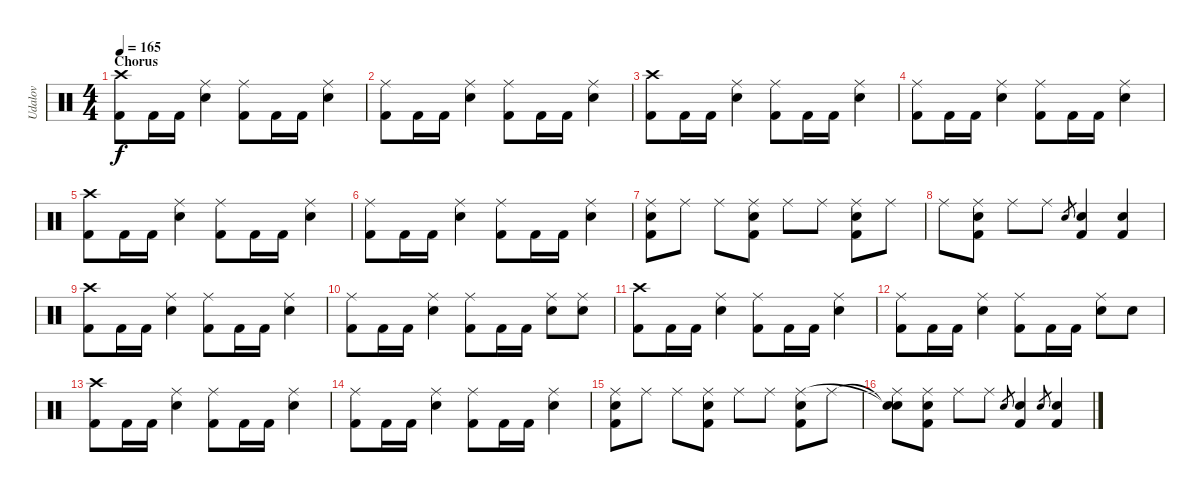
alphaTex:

\track ("Udalov" "Udalov") {instrument percussion}
\staff {score}
\articulation defaults
\ts (4 4)
\section ("" "Chorus")
\tempo 165
\clef neutral
\ks c
("Kick (hit) 2" "Crash high (hit)").8{dy f} "Kick (hit) 2".16 "Kick (hit) 2".16 ("Snare (hit) 2" "Ride (middle)").4 ("Kick (hit) 2" "Ride (middle)").8 "Kick (hit) 2".16 "Kick (hit) 2".16 ("Snare (hit) 2" "Ride (middle)").4 |
("Kick (hit) 2" "Ride (middle)").8 "Kick (hit) 2".16 "Kick (hit) 2".16 ("Snare (hit) 2" "Ride (middle)").4 ("Kick (hit) 2" "Ride (middle)").8 "Kick (hit) 2".16 "Kick (hit) 2".16 ("Snare (hit) 2" "Ride (middle)").4 |
("Kick (hit) 2" "Crash high (hit)").8 "Kick (hit) 2".16 "Kick (hit) 2".16 ("Snare (hit) 2" "Ride (middle)").4 ("Kick (hit) 2" "Ride (middle)").8 "Kick (hit) 2".16 "Kick (hit) 2".16 ("Snare (hit) 2" "Ride (middle)").4 |
("Kick (hit) 2" "Ride (middle)").8 "Kick (hit) 2".16 "Kick (hit) 2".16 ("Snare (hit) 2" "Ride (middle)").4 ("Kick (hit) 2" "Ride (middle)").8 "Kick (hit) 2".16 "Kick (hit) 2".16 ("Snare (hit) 2" "Ride (middle)").4 |
("Kick (hit) 2" "Crash high (hit)").8 "Kick (hit) 2".16 "Kick (hit) 2".16 ("Snare (hit) 2" "Ride (middle)").4 ("Kick (hit) 2" "Ride (middle)").8 "Kick (hit) 2".16 "Kick (hit) 2".16 ("Snare (hit) 2" "Ride (middle)").4 |
("Kick (hit) 2" "Ride (middle)").8 "Kick (hit) 2".16 "Kick (hit) 2".16 ("Snare (hit) 2" "Ride (middle)").4 ("Kick (hit) 2" "Ride (middle)").8 "Kick (hit) 2".16 "Kick (hit) 2".16 ("Snare (hit) 2" "Ride (middle)").4 |
("Snare (hit) 2" "Ride (middle)" "Kick (hit) 2").8 "Ride (middle)".8 "Ride (middle)".8 ("Snare (hit) 2" "Ride (middle)" "Kick (hit) 2").8 "Ride (middle)".8 "Ride (middle)".8 ("Snare (hit) 2" "Ride (middle)" "Kick (hit) 2").8 "Ride (middle)".8 |
"Ride (middle)".8 ("Snare (hit) 2" "Ride (middle)" "Kick (hit) 2").8 "Ride (middle)".8 "Ride (middle)".8 "Snare (hit) 2".8{gr} ("Snare (hit) 2" "Kick (hit) 2").4 ("Snare (hit) 2" "Kick (hit) 2").4 |
("Kick (hit) 2" "Crash high (hit)").8 "Kick (hit) 2".16 "Kick (hit) 2".16 ("Snare (hit) 2" "Ride (middle)").4 ("Kick (hit) 2" "Ride (middle)").8 "Kick (hit) 2".16 "Kick (hit) 2".16 ("Snare (hit) 2" "Ride (middle)").4 |
("Kick (hit) 2" "Ride (middle)").8 "Kick (hit) 2".16 "Kick (hit) 2".16 ("Snare (hit) 2" "Ride (middle)").4 ("Kick (hit) 2" "Ride (middle)").8 "Kick (hit) 2".16 "Kick (hit) 2".16 ("Snare (hit) 2" "Ride (middle)").8 ("Snare (hit) 2" "Ride (middle)").8 |
("Kick (hit) 2" "Crash high (hit)").8 "Kick (hit) 2".16 "Kick (hit) 2".16 ("Snare (hit) 2" "Ride (middle)").4 ("Kick (hit) 2" "Ride (middle)").8 "Kick (hit) 2".16 "Kick (hit) 2".16 ("Snare (hit) 2" "Ride (middle)").4 |
("Kick (hit) 2" "Ride (middle)").8 "Kick (hit) 2".16 "Kick (hit) 2".16 ("Snare (hit) 2" "Ride (middle)").4 ("Kick (hit) 2" "Ride (middle)").8 "Kick (hit) 2".16 "Kick (hit) 2".16 ("Snare (hit) 2" "Ride (middle)").8 "Snare (hit) 2".8 |
("Kick (hit) 2" "Crash high (hit)").8 "Kick (hit) 2".16 "Kick (hit) 2".16 ("Snare (hit) 2" "Ride (middle)").4 ("Kick (hit) 2" "Ride (middle)").8 "Kick (hit) 2".16 "Kick (hit) 2".16 ("Snare (hit) 2" "Ride (middle)").4 |
("Kick (hit) 2" "Ride (middle)").8 "Kick (hit) 2".16 "Kick (hit) 2".16 ("Snare (hit) 2" "Ride (middle)").4 ("Kick (hit) 2" "Ride (middle)").8 "Kick (hit) 2".16 "Kick (hit) 2".16 ("Snare (hit) 2" "Ride (middle)").4 |
("Snare (hit) 2" "Ride (middle)" "Kick (hit) 2").8 "Ride (middle)".8 "Ride (middle)".8 ("Snare (hit) 2" "Ride (middle)" "Kick (hit) 2").8 "Ride (middle)".8 "Ride (middle)".8 ("Snare (hit) 2" "Ride (middle)" "Kick (hit) 2").8 "Ride (middle)".8 |
("Snare (hit)"{t} "Snare (hit)"{t} "Ride (middle)").8 ("Snare (hit) 2" "Ride (middle)" "Kick (hit) 2").8 "Ride (middle)".8 "Ride (middle)".8 "Snare (hit) 2".8{gr} ("Snare (hit) 2" "Kick (hit) 2").4 "Snare (hit) 2".8{gr} ("Snare (hit) 2" "Kick (hit) 2").4
